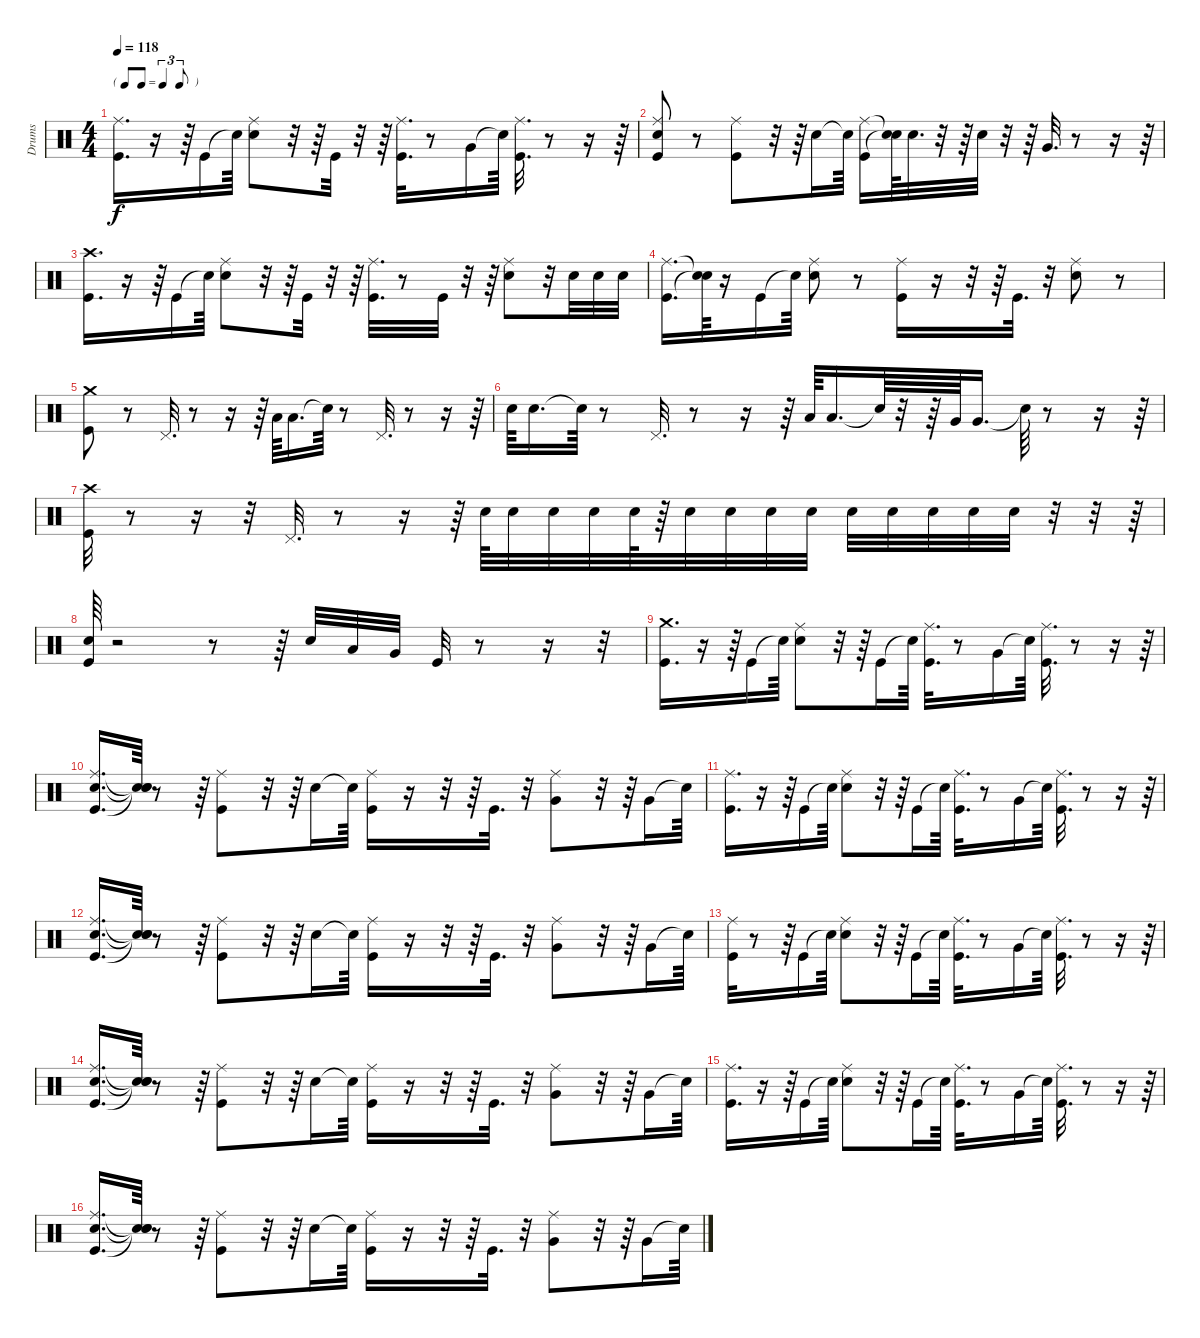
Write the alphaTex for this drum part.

\track ("Drums" "Drums") {instrument percussion}
\staff {score}
\articulation defaults
\ts (4 4)
\tf triplet8th
\tempo 118
\clef neutral
\ks c
("Kick (hit)" "Ride (middle)").16{d dy f} r.16 r.64 "Kick (hit)".16 "Snare (hit)"{t}.64 ("Snare (hit) 2" "Ride (middle)").8 r.32 r.64 "Kick (hit)".32 r.32 r.64 ("Ride (middle)" "Kick (hit)").32{d} r.8 "Very Low Tom (hit)".16 "Snare (hit)"{t}.64 ("Kick (hit)" "Ride (middle)").32{d} r.8 r.16 r.64 |
("Snare (hit) 2" "Ride (middle)" "Kick (hit)").8 r.8 ("Kick (hit)" "Ride (middle)").8 r.32 r.64 "Snare (hit) 2".16 "Snare (hit)"{t}.64 ("Ride (middle)" "Kick (hit)").16 ("Snare (hit)"{t} "Snare (hit)"{t}).64 "Snare (hit) 2".32{d} r.32 r.64 "Snare (hit) 2".32 r.32 r.64 "Very Low Tom (hit)".32{d} r.8 r.16 r.64 |
("Kick (hit)" "Crash high (hit)").16{d} r.16 r.64 "Kick (hit)".16 "Snare (hit)"{t}.64 ("Snare (hit) 2" "Ride (middle)").8 r.32 r.64 "Kick (hit)".32 r.32 r.64 ("Ride (middle)" "Kick (hit)").32{d} r.8 "Kick (hit)".32 r.32 r.64 ("Ride (middle)" "Snare (hit) 2").8 r.32 "Snare (hit) 2".32 "Snare (hit) 2".32 "Snare (hit) 2".32 |
("Kick (hit)" "Ride (middle)").16{d} ("Snare (hit)"{t} "Snare (hit)"{t}).64 r.16 "Kick (hit)".16 "Snare (hit)"{t}.64 ("Ride (middle)" "Snare (hit) 2").8 r.8 ("Kick (hit)" "Ride (middle)").16 r.16 r.32 r.64 "Kick (hit)".32{d} r.32 ("Ride (middle)" "Snare (hit) 2").8 r.8 |
("Kick (hit)" "Crash medium (hit)").8 r.8 "Pedal Hi-Hat (hit)".32{d} r.8 r.16 r.64 "Low Tom (hit)".64 "Low Tom (hit)".16{d} "Snare (hit)"{t}.64 r.8 "Pedal Hi-Hat (hit)".32{d} r.8 r.16 r.64 |
"Snare (hit) 2".64 "Snare (hit) 2".16{d} "Snare (hit)"{t}.64 r.8 "Pedal Hi-Hat (hit)".32{d} r.8 r.16 r.64 "Low Tom (hit)".64 "Low Tom (hit)".16{d} "Snare (hit)"{t}.64 r.32 r.64 "Very Low Tom (hit)".64 "Very Low Tom (hit)".16{d} "Snare (hit)"{t}.64 r.8 r.16 r.64 |
("Kick (hit)" "Crash high (hit)").32 r.8 r.16 r.32 "Pedal Hi-Hat (hit)".32{d} r.8 r.16 r.64 "Snare (hit) 2".64 "Snare (hit) 2".32 "Snare (hit) 2".32 "Snare (hit) 2".32 "Snare (hit) 2".64 r.64 "Snare (hit) 2".32 "Snare (hit) 2".32 "Snare (hit) 2".32 "Snare (hit) 2".32 "Snare (hit) 2".32 "Snare (hit) 2".32 "Snare (hit) 2".32 "Snare (hit) 2".32 "Snare (hit) 2".32 r.32 r.32 r.64 |
("Snare (hit) 2" "Kick (hit)").64 r.2 r.8 r.64 "Snare (hit) 2".32 "Low Tom (hit)".32 "Very Low Tom (hit)".32 "Kick (hit)".32 r.8 r.16 r.32 |
("Crash medium (hit)" "Kick (hit)").16{d} r.16 r.64 "Kick (hit)".16 "Snare (hit)"{t}.64 ("Snare (hit) 2" "Ride (middle)").8 r.32 r.64 "Kick (hit)".16 "Snare (hit)"{t}.64 ("Ride (middle)" "Kick (hit)").32{d} r.8 "Very Low Tom (hit)".16 "Snare (hit)"{t}.64 ("Ride (middle)" "Kick (hit)").32{d} r.8 r.16 r.64 |
("Kick (hit)" "Ride (middle)" "Snare (hit) 2").16{d} ("Snare (hit)"{t} "Snare (hit)"{t} "Snare (hit)"{t}).64 r.8 r.64 ("Kick (hit)" "Ride (middle)").8 r.32 r.64 "Snare (hit) 2".16 "Snare (hit)"{t}.64 ("Kick (hit)" "Ride (middle)").16 r.16 r.32 r.64 "Kick (hit)".32{d} r.32 ("Ride (middle)" "Very Low Tom (hit)").8 r.32 r.64 "Very Low Tom (hit)".16 "Snare (hit)"{t}.64 |
("Kick (hit)" "Ride (middle)").16{d} r.16 r.64 "Kick (hit)".16 "Snare (hit)"{t}.64 ("Snare (hit) 2" "Ride (middle)").8 r.32 r.64 "Kick (hit)".16 "Snare (hit)"{t}.64 ("Ride (middle)" "Kick (hit)").32{d} r.8 "Very Low Tom (hit)".16 "Snare (hit)"{t}.64 ("Kick (hit)" "Ride (middle)").32{d} r.8 r.16 r.64 |
("Ride (middle)" "Kick (hit)" "Snare (hit) 2").16{d} ("Snare (hit)"{t} "Snare (hit)"{t} "Snare (hit)"{t}).64 r.8 r.64 ("Ride (middle)" "Kick (hit)").8 r.32 r.64 "Snare (hit) 2".16 "Snare (hit)"{t}.64 ("Kick (hit)" "Ride (middle)").16 r.16 r.32 r.64 "Kick (hit)".32{d} r.32 ("Ride (middle)" "Very Low Tom (hit)").8 r.32 r.64 "Very Low Tom (hit)".16 "Snare (hit)"{t}.64 |
("Ride (middle)" "Kick (hit)").32 r.8 r.64 "Kick (hit)".16 "Snare (hit)"{t}.64 ("Snare (hit) 2" "Ride (middle)").8 r.32 r.64 "Kick (hit)".16 "Snare (hit)"{t}.64 ("Ride (middle)" "Kick (hit)").32{d} r.8 "Very Low Tom (hit)".16 "Snare (hit)"{t}.64 ("Ride (middle)" "Kick (hit)").32{d} r.8 r.16 r.64 |
("Kick (hit)" "Ride (middle)" "Snare (hit) 2").16{d} ("Snare (hit)"{t} "Snare (hit)"{t} "Snare (hit)"{t}).64 r.8 r.64 ("Kick (hit)" "Ride (middle)").8 r.32 r.64 "Snare (hit) 2".16 "Snare (hit)"{t}.64 ("Kick (hit)" "Ride (middle)").16 r.16 r.32 r.64 "Kick (hit)".32{d} r.32 ("Ride (middle)" "Very Low Tom (hit)").8 r.32 r.64 "Very Low Tom (hit)".16 "Snare (hit)"{t}.64 |
("Kick (hit)" "Ride (middle)").16{d} r.16 r.64 "Kick (hit)".16 "Snare (hit)"{t}.64 ("Snare (hit) 2" "Ride (middle)").8 r.32 r.64 "Kick (hit)".16 "Snare (hit)"{t}.64 ("Ride (middle)" "Kick (hit)").32{d} r.8 "Very Low Tom (hit)".16 "Snare (hit)"{t}.64 ("Kick (hit)" "Ride (middle)").32{d} r.8 r.16 r.64 |
("Ride (middle)" "Kick (hit)" "Snare (hit) 2").16{d} ("Snare (hit)"{t} "Snare (hit)"{t} "Snare (hit)"{t}).64 r.8 r.64 ("Ride (middle)" "Kick (hit)").8 r.32 r.64 "Snare (hit) 2".16 "Snare (hit)"{t}.64 ("Kick (hit)" "Ride (middle)").16 r.16 r.32 r.64 "Kick (hit)".32{d} r.32 ("Ride (middle)" "Very Low Tom (hit)").8 r.32 r.64 "Very Low Tom (hit)".16 "Snare (hit)"{t}.64
